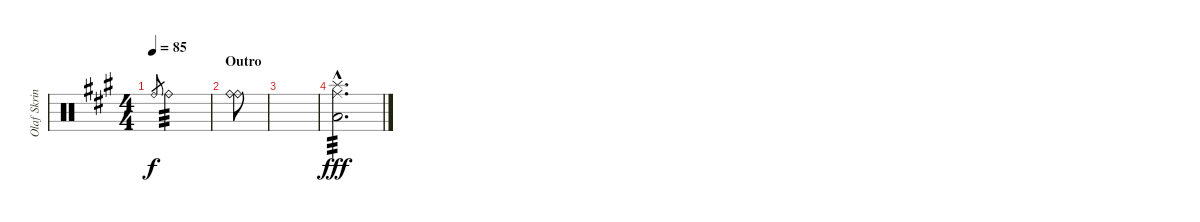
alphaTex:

\track ("Olaf Skrinde (Drums)" "Olaf Skrin") {instrument percussion}
\staff {score}
\articulation defaults
\ts (4 4)
\tempo 85
\clef neutral
\ks a "Ride (bell)".8{gr dy f} "Ride (bell)".2{tp 3}
|
\section ("" "Outro")
("Ride (bell)" "Ride (bell)").8 |
|
("Splash (hit)"{hac} "Ride (middle)"{hac} "Low Floor Tom (hit)"{hac}).2{d tp 3 dy fff volume 1}
